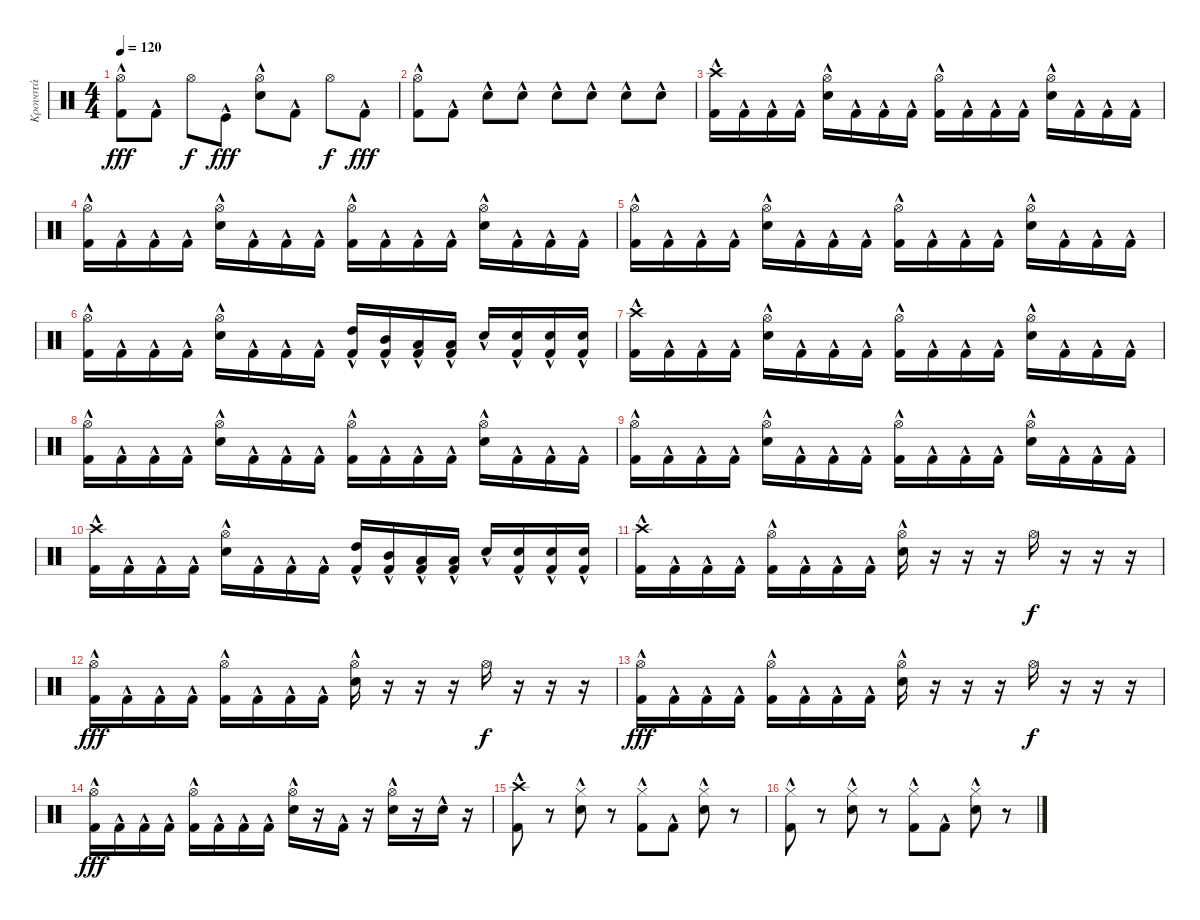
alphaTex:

\track ("Κρουστά" "Κρουστά") {instrument percussion}
\staff {score}
\articulation defaults
\ts (4 4)
\tempo 120
\clef neutral
\ks c
("Kick (hit) 2"{hac} "Hi-Hat (open)").8{dy fff} "Kick (hit) 2"{hac}.8 "Hi-Hat (open)".8{dy f} "Kick (hit)"{hac}.8{dy fff} ("Electric Snare (hit)"{hac} "Hi-Hat (open)").8 "Kick (hit) 2"{hac}.8 "Hi-Hat (open)".8{dy f} "Kick (hit) 2"{hac}.8{dy fff} |
("Kick (hit) 2"{hac} "Hi-Hat (open)").8 "Kick (hit) 2"{hac}.8 "Electric Snare (hit)"{hac}.8 "Electric Snare (hit)"{hac}.8 "Electric Snare (hit)"{hac}.8 "Electric Snare (hit)"{hac}.8 "Electric Snare (hit)"{hac}.8 "Electric Snare (hit)"{hac}.8 |
("Kick (hit) 2"{hac} "Crash high (hit)").16 "Kick (hit) 2"{hac}.16 "Kick (hit) 2"{hac}.16 "Kick (hit) 2"{hac}.16 ("Electric Snare (hit)"{hac} "Hi-Hat (open)").16 "Kick (hit) 2"{hac}.16 "Kick (hit) 2"{hac}.16 "Kick (hit) 2"{hac}.16 ("Kick (hit) 2"{hac} "Hi-Hat (open)").16 "Kick (hit) 2"{hac}.16 "Kick (hit) 2"{hac}.16 "Kick (hit) 2"{hac}.16 ("Electric Snare (hit)"{hac} "Hi-Hat (open)").16 "Kick (hit) 2"{hac}.16 "Kick (hit) 2"{hac}.16 "Kick (hit) 2"{hac}.16 |
("Kick (hit) 2"{hac} "Hi-Hat (open)").16 "Kick (hit) 2"{hac}.16 "Kick (hit) 2"{hac}.16 "Kick (hit) 2"{hac}.16 ("Electric Snare (hit)"{hac} "Hi-Hat (open)").16 "Kick (hit) 2"{hac}.16 "Kick (hit) 2"{hac}.16 "Kick (hit) 2"{hac}.16 ("Kick (hit) 2"{hac} "Hi-Hat (open)").16 "Kick (hit) 2"{hac}.16 "Kick (hit) 2"{hac}.16 "Kick (hit) 2"{hac}.16 ("Electric Snare (hit)"{hac} "Hi-Hat (open)").16 "Kick (hit) 2"{hac}.16 "Kick (hit) 2"{hac}.16 "Kick (hit) 2"{hac}.16 |
("Kick (hit) 2"{hac} "Hi-Hat (open)").16 "Kick (hit) 2"{hac}.16 "Kick (hit) 2"{hac}.16 "Kick (hit) 2"{hac}.16 ("Electric Snare (hit)"{hac} "Hi-Hat (open)").16 "Kick (hit) 2"{hac}.16 "Kick (hit) 2"{hac}.16 "Kick (hit) 2"{hac}.16 ("Kick (hit) 2"{hac} "Hi-Hat (open)").16 "Kick (hit) 2"{hac}.16 "Kick (hit) 2"{hac}.16 "Kick (hit) 2"{hac}.16 ("Electric Snare (hit)"{hac} "Hi-Hat (open)").16 "Kick (hit) 2"{hac}.16 "Kick (hit) 2"{hac}.16 "Kick (hit) 2"{hac}.16 |
("Kick (hit) 2"{hac} "Hi-Hat (open)").16 "Kick (hit) 2"{hac}.16 "Kick (hit) 2"{hac}.16 "Kick (hit) 2"{hac}.16 ("Electric Snare (hit)"{hac} "Hi-Hat (open)").16 "Kick (hit) 2"{hac}.16 "Kick (hit) 2"{hac}.16 "Kick (hit) 2"{hac}.16 ("Kick (hit) 2"{hac} "High Tom (hit)").16 ("Kick (hit) 2"{hac} "Mid Tom (hit)").16 ("Kick (hit) 2"{hac} "Low Tom (hit)").16 ("Kick (hit) 2"{hac} "Low Tom (hit)").16 "Electric Snare (hit)"{hac}.16 ("Kick (hit) 2"{hac} "Electric Snare (hit)").16 ("Kick (hit) 2"{hac} "Electric Snare (hit)").16 ("Kick (hit) 2"{hac} "Electric Snare (hit)").16 |
("Kick (hit) 2"{hac} "Crash high (hit)").16 "Kick (hit) 2"{hac}.16 "Kick (hit) 2"{hac}.16 "Kick (hit) 2"{hac}.16 ("Electric Snare (hit)"{hac} "Hi-Hat (open)").16 "Kick (hit) 2"{hac}.16 "Kick (hit) 2"{hac}.16 "Kick (hit) 2"{hac}.16 ("Kick (hit) 2"{hac} "Hi-Hat (open)").16 "Kick (hit) 2"{hac}.16 "Kick (hit) 2"{hac}.16 "Kick (hit) 2"{hac}.16 ("Electric Snare (hit)"{hac} "Hi-Hat (open)").16 "Kick (hit) 2"{hac}.16 "Kick (hit) 2"{hac}.16 "Kick (hit) 2"{hac}.16 |
("Kick (hit) 2"{hac} "Hi-Hat (open)").16 "Kick (hit) 2"{hac}.16 "Kick (hit) 2"{hac}.16 "Kick (hit) 2"{hac}.16 ("Electric Snare (hit)"{hac} "Hi-Hat (open)").16 "Kick (hit) 2"{hac}.16 "Kick (hit) 2"{hac}.16 "Kick (hit) 2"{hac}.16 ("Kick (hit) 2"{hac} "Hi-Hat (open)").16 "Kick (hit) 2"{hac}.16 "Kick (hit) 2"{hac}.16 "Kick (hit) 2"{hac}.16 ("Electric Snare (hit)"{hac} "Hi-Hat (open)").16 "Kick (hit) 2"{hac}.16 "Kick (hit) 2"{hac}.16 "Kick (hit) 2"{hac}.16 |
("Kick (hit) 2"{hac} "Hi-Hat (open)").16 "Kick (hit) 2"{hac}.16 "Kick (hit) 2"{hac}.16 "Kick (hit) 2"{hac}.16 ("Electric Snare (hit)"{hac} "Hi-Hat (open)").16 "Kick (hit) 2"{hac}.16 "Kick (hit) 2"{hac}.16 "Kick (hit) 2"{hac}.16 ("Kick (hit) 2"{hac} "Hi-Hat (open)").16 "Kick (hit) 2"{hac}.16 "Kick (hit) 2"{hac}.16 "Kick (hit) 2"{hac}.16 ("Electric Snare (hit)"{hac} "Hi-Hat (open)").16 "Kick (hit) 2"{hac}.16 "Kick (hit) 2"{hac}.16 "Kick (hit) 2"{hac}.16 |
("Kick (hit) 2"{hac} "Crash high (hit)").16 "Kick (hit) 2"{hac}.16 "Kick (hit) 2"{hac}.16 "Kick (hit) 2"{hac}.16 ("Electric Snare (hit)"{hac} "Hi-Hat (open)").16 "Kick (hit) 2"{hac}.16 "Kick (hit) 2"{hac}.16 "Kick (hit) 2"{hac}.16 ("Kick (hit) 2"{hac} "High Tom (hit)").16 ("Kick (hit) 2"{hac} "Mid Tom (hit)").16 ("Kick (hit) 2"{hac} "Low Tom (hit)").16 ("Kick (hit) 2"{hac} "Low Tom (hit)").16 "Electric Snare (hit)"{hac}.16 ("Kick (hit) 2"{hac} "Electric Snare (hit)").16 ("Kick (hit) 2"{hac} "Electric Snare (hit)").16 ("Kick (hit) 2"{hac} "Electric Snare (hit)").16 |
("Kick (hit) 2"{hac} "Crash high (hit)").16 "Kick (hit) 2"{hac}.16 "Kick (hit) 2"{hac}.16 "Kick (hit) 2"{hac}.16 ("Kick (hit) 2"{hac} "Hi-Hat (open)").16 "Kick (hit) 2"{hac}.16 "Kick (hit) 2"{hac}.16 "Kick (hit) 2"{hac}.16 ("Electric Snare (hit)"{hac} "Hi-Hat (open)").16 r.16 r.16 r.16 "Hi-Hat (open)".16{dy f} r.16 r.16 r.16 |
("Kick (hit) 2"{hac} "Hi-Hat (open)").16{dy fff} "Kick (hit) 2"{hac}.16 "Kick (hit) 2"{hac}.16 "Kick (hit) 2"{hac}.16 ("Kick (hit) 2"{hac} "Hi-Hat (open)").16 "Kick (hit) 2"{hac}.16 "Kick (hit) 2"{hac}.16 "Kick (hit) 2"{hac}.16 ("Electric Snare (hit)"{hac} "Hi-Hat (open)").16 r.16 r.16 r.16 "Hi-Hat (open)".16{dy f} r.16 r.16 r.16 |
("Kick (hit) 2"{hac} "Hi-Hat (open)").16{dy fff} "Kick (hit) 2"{hac}.16 "Kick (hit) 2"{hac}.16 "Kick (hit) 2"{hac}.16 ("Kick (hit) 2"{hac} "Hi-Hat (open)").16 "Kick (hit) 2"{hac}.16 "Kick (hit) 2"{hac}.16 "Kick (hit) 2"{hac}.16 ("Electric Snare (hit)"{hac} "Hi-Hat (open)").16 r.16 r.16 r.16 "Hi-Hat (open)".16{dy f} r.16 r.16 r.16 |
("Kick (hit) 2"{hac} "Hi-Hat (open)").16{dy fff} "Kick (hit) 2"{hac}.16 "Kick (hit) 2"{hac}.16 "Kick (hit) 2"{hac}.16 ("Kick (hit) 2"{hac} "Hi-Hat (open)").16 "Kick (hit) 2"{hac}.16 "Kick (hit) 2"{hac}.16 "Kick (hit) 2"{hac}.16 ("Electric Snare (hit)"{hac} "Hi-Hat (open)").16 r.16 "Kick (hit) 2"{hac}.16 r.16 ("Electric Snare (hit)"{hac} "Hi-Hat (open)").16 r.16 "Electric Snare (hit)"{hac}.16 r.16 |
("Kick (hit) 2"{hac} "Crash high (hit)").8 r.8 ("Electric Snare (hit)"{hac} "Hi-Hat (closed)").8 r.8 ("Kick (hit) 2"{hac} "Hi-Hat (closed)").8 "Kick (hit) 2"{hac}.8 ("Electric Snare (hit)"{hac} "Hi-Hat (closed)").8 r.8 |
("Kick (hit) 2"{hac} "Hi-Hat (closed)").8 r.8 ("Electric Snare (hit)"{hac} "Hi-Hat (closed)").8 r.8 ("Kick (hit) 2"{hac} "Hi-Hat (closed)").8 "Kick (hit) 2"{hac}.8 ("Electric Snare (hit)"{hac} "Hi-Hat (closed)").8 r.8
